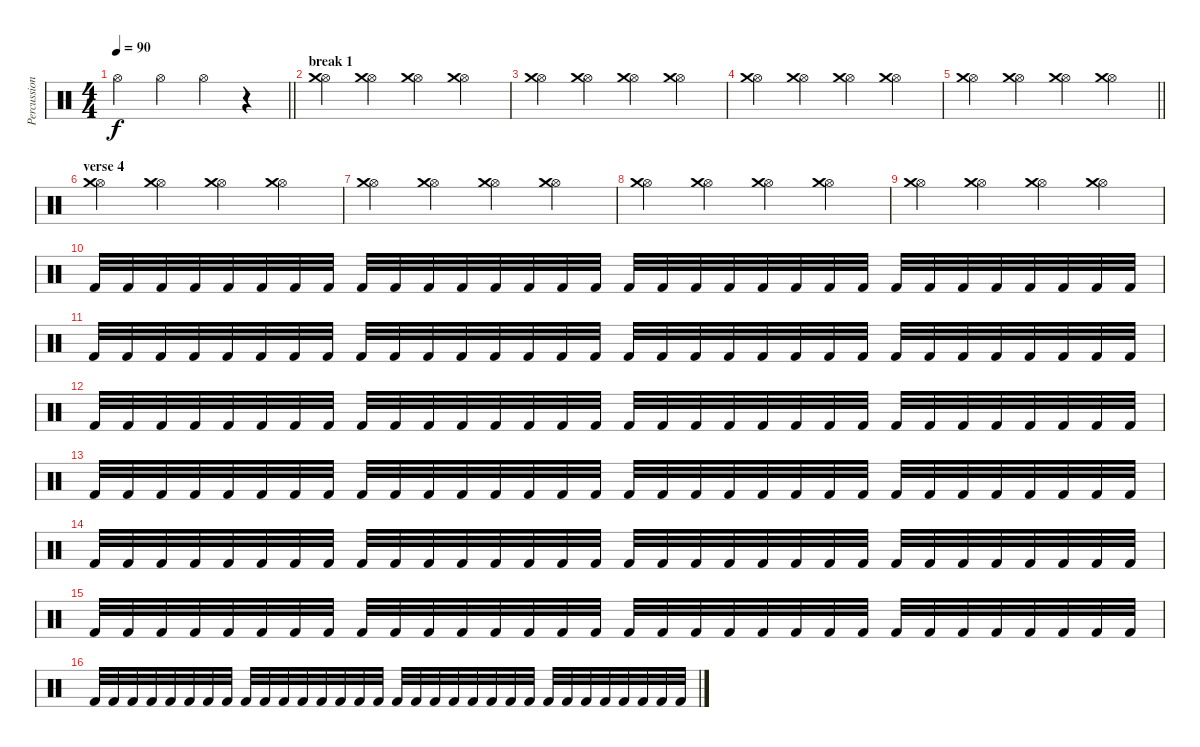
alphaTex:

\track ("Percussion" "Percussion") {instrument percussion}
\staff {score}
\articulation defaults
\ts (4 4)
\tempo 90
\clef neutral
\barLineRight lightlight
\ks c "Hi-Hat (open)".4{dy f} "Hi-Hat (open)".4 "Hi-Hat (open)".4
r.4 |
\section ("" "break 1")
("Hi-Hat (open)" "Crash medium (hit)").4 ("Hi-Hat (open)" "Crash medium (hit)").4 ("Hi-Hat (open)" "Crash medium (hit)").4 ("Hi-Hat (open)" "Crash medium (hit)").4 |
("Hi-Hat (open)" "Crash medium (hit)").4 ("Hi-Hat (open)" "Crash medium (hit)").4 ("Hi-Hat (open)" "Crash medium (hit)").4 ("Hi-Hat (open)" "Crash medium (hit)").4 |
("Hi-Hat (open)" "Crash medium (hit)").4 ("Hi-Hat (open)" "Crash medium (hit)").4 ("Hi-Hat (open)" "Crash medium (hit)").4 ("Hi-Hat (open)" "Crash medium (hit)").4 |
\barLineRight lightlight
("Hi-Hat (open)" "Crash medium (hit)").4 ("Hi-Hat (open)" "Crash medium (hit)").4 ("Hi-Hat (open)" "Crash medium (hit)").4 ("Hi-Hat (open)" "Crash medium (hit)").4 |
\section ("" "verse 4")
("Hi-Hat (open)" "Crash medium (hit)").4 ("Hi-Hat (open)" "Crash medium (hit)").4 ("Hi-Hat (open)" "Crash medium (hit)").4 ("Hi-Hat (open)" "Crash medium (hit)").4 |
("Hi-Hat (open)" "Crash medium (hit)").4 ("Hi-Hat (open)" "Crash medium (hit)").4 ("Hi-Hat (open)" "Crash medium (hit)").4 ("Hi-Hat (open)" "Crash medium (hit)").4 |
("Hi-Hat (open)" "Crash medium (hit)").4 ("Hi-Hat (open)" "Crash medium (hit)").4 ("Hi-Hat (open)" "Crash medium (hit)").4 ("Hi-Hat (open)" "Crash medium (hit)").4 |
("Hi-Hat (open)" "Crash medium (hit)").4 ("Hi-Hat (open)" "Crash medium (hit)").4 ("Hi-Hat (open)" "Crash medium (hit)").4 ("Hi-Hat (open)" "Crash medium (hit)").4 |
"Kick (hit) 2".32 "Kick (hit) 2".32 "Kick (hit) 2".32 "Kick (hit) 2".32 "Kick (hit) 2".32 "Kick (hit) 2".32 "Kick (hit) 2".32 "Kick (hit) 2".32 "Kick (hit) 2".32 "Kick (hit) 2".32 "Kick (hit) 2".32 "Kick (hit) 2".32 "Kick (hit) 2".32 "Kick (hit) 2".32 "Kick (hit) 2".32 "Kick (hit) 2".32 "Kick (hit) 2".32 "Kick (hit) 2".32 "Kick (hit) 2".32 "Kick (hit) 2".32 "Kick (hit) 2".32 "Kick (hit) 2".32 "Kick (hit) 2".32 "Kick (hit) 2".32 "Kick (hit) 2".32 "Kick (hit) 2".32 "Kick (hit) 2".32 "Kick (hit) 2".32 "Kick (hit) 2".32 "Kick (hit) 2".32 "Kick (hit) 2".32 "Kick (hit) 2".32 |
"Kick (hit) 2".32 "Kick (hit) 2".32 "Kick (hit) 2".32 "Kick (hit) 2".32 "Kick (hit) 2".32 "Kick (hit) 2".32 "Kick (hit) 2".32 "Kick (hit) 2".32 "Kick (hit) 2".32 "Kick (hit) 2".32 "Kick (hit) 2".32 "Kick (hit) 2".32 "Kick (hit) 2".32 "Kick (hit) 2".32 "Kick (hit) 2".32 "Kick (hit) 2".32 "Kick (hit) 2".32 "Kick (hit) 2".32 "Kick (hit) 2".32 "Kick (hit) 2".32 "Kick (hit) 2".32 "Kick (hit) 2".32 "Kick (hit) 2".32 "Kick (hit) 2".32 "Kick (hit) 2".32 "Kick (hit) 2".32 "Kick (hit) 2".32 "Kick (hit) 2".32 "Kick (hit) 2".32 "Kick (hit) 2".32 "Kick (hit) 2".32 "Kick (hit) 2".32 |
"Kick (hit) 2".32 "Kick (hit) 2".32 "Kick (hit) 2".32 "Kick (hit) 2".32 "Kick (hit) 2".32 "Kick (hit) 2".32 "Kick (hit) 2".32 "Kick (hit) 2".32 "Kick (hit) 2".32 "Kick (hit) 2".32 "Kick (hit) 2".32 "Kick (hit) 2".32 "Kick (hit) 2".32 "Kick (hit) 2".32 "Kick (hit) 2".32 "Kick (hit) 2".32 "Kick (hit) 2".32 "Kick (hit) 2".32 "Kick (hit) 2".32 "Kick (hit) 2".32 "Kick (hit) 2".32 "Kick (hit) 2".32 "Kick (hit) 2".32 "Kick (hit) 2".32 "Kick (hit) 2".32 "Kick (hit) 2".32 "Kick (hit) 2".32 "Kick (hit) 2".32 "Kick (hit) 2".32 "Kick (hit) 2".32 "Kick (hit) 2".32 "Kick (hit) 2".32 |
"Kick (hit) 2".32 "Kick (hit) 2".32 "Kick (hit) 2".32 "Kick (hit) 2".32 "Kick (hit) 2".32 "Kick (hit) 2".32 "Kick (hit) 2".32 "Kick (hit) 2".32 "Kick (hit) 2".32 "Kick (hit) 2".32 "Kick (hit) 2".32 "Kick (hit) 2".32 "Kick (hit) 2".32 "Kick (hit) 2".32 "Kick (hit) 2".32 "Kick (hit) 2".32 "Kick (hit) 2".32 "Kick (hit) 2".32 "Kick (hit) 2".32 "Kick (hit) 2".32 "Kick (hit) 2".32 "Kick (hit) 2".32 "Kick (hit) 2".32 "Kick (hit) 2".32 "Kick (hit) 2".32 "Kick (hit) 2".32 "Kick (hit) 2".32 "Kick (hit) 2".32 "Kick (hit) 2".32 "Kick (hit) 2".32 "Kick (hit) 2".32 "Kick (hit) 2".32 |
"Kick (hit) 2".32 "Kick (hit) 2".32 "Kick (hit) 2".32 "Kick (hit) 2".32 "Kick (hit) 2".32 "Kick (hit) 2".32 "Kick (hit) 2".32 "Kick (hit) 2".32 "Kick (hit) 2".32 "Kick (hit) 2".32 "Kick (hit) 2".32 "Kick (hit) 2".32 "Kick (hit) 2".32 "Kick (hit) 2".32 "Kick (hit) 2".32 "Kick (hit) 2".32 "Kick (hit) 2".32 "Kick (hit) 2".32 "Kick (hit) 2".32 "Kick (hit) 2".32 "Kick (hit) 2".32 "Kick (hit) 2".32 "Kick (hit) 2".32 "Kick (hit) 2".32 "Kick (hit) 2".32 "Kick (hit) 2".32 "Kick (hit) 2".32 "Kick (hit) 2".32 "Kick (hit) 2".32 "Kick (hit) 2".32 "Kick (hit) 2".32 "Kick (hit) 2".32 |
"Kick (hit) 2".32 "Kick (hit) 2".32 "Kick (hit) 2".32 "Kick (hit) 2".32 "Kick (hit) 2".32 "Kick (hit) 2".32 "Kick (hit) 2".32 "Kick (hit) 2".32 "Kick (hit) 2".32 "Kick (hit) 2".32 "Kick (hit) 2".32 "Kick (hit) 2".32 "Kick (hit) 2".32 "Kick (hit) 2".32 "Kick (hit) 2".32 "Kick (hit) 2".32 "Kick (hit) 2".32 "Kick (hit) 2".32 "Kick (hit) 2".32 "Kick (hit) 2".32 "Kick (hit) 2".32 "Kick (hit) 2".32 "Kick (hit) 2".32 "Kick (hit) 2".32 "Kick (hit) 2".32 "Kick (hit) 2".32 "Kick (hit) 2".32 "Kick (hit) 2".32 "Kick (hit) 2".32 "Kick (hit) 2".32 "Kick (hit) 2".32 "Kick (hit) 2".32 |
"Kick (hit) 2".32 "Kick (hit) 2".32 "Kick (hit) 2".32 "Kick (hit) 2".32 "Kick (hit) 2".32 "Kick (hit) 2".32 "Kick (hit) 2".32 "Kick (hit) 2".32 "Kick (hit) 2".32 "Kick (hit) 2".32 "Kick (hit) 2".32 "Kick (hit) 2".32 "Kick (hit) 2".32 "Kick (hit) 2".32 "Kick (hit) 2".32 "Kick (hit) 2".32 "Kick (hit) 2".32 "Kick (hit) 2".32 "Kick (hit) 2".32 "Kick (hit) 2".32 "Kick (hit) 2".32 "Kick (hit) 2".32 "Kick (hit) 2".32 "Kick (hit) 2".32 "Kick (hit) 2".32 "Kick (hit) 2".32 "Kick (hit) 2".32 "Kick (hit) 2".32 "Kick (hit) 2".32 "Kick (hit) 2".32 "Kick (hit) 2".32 "Kick (hit) 2".32
